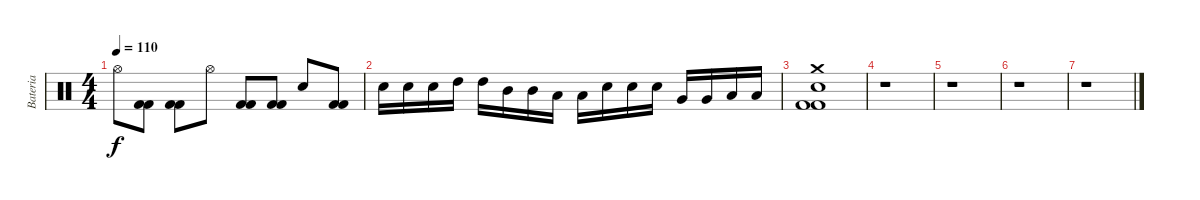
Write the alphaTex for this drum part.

\track ("Bateria" "Bateria") {instrument percussion}
\staff {score}
\articulation defaults
\ts (4 4)
\tempo 110
\clef neutral
\ks c "Hi-Hat (open)".8{dy f}
("Kick (hit) 2" "Kick (hit) 2").8 ("Kick (hit) 2" "Kick (hit) 2").8 "Hi-Hat (open)".8 ("Kick (hit) 2" "Kick (hit) 2").8 ("Kick (hit) 2" "Kick (hit) 2").8 "Electric Snare (hit)".8 ("Kick (hit) 2" "Kick (hit) 2").8 |
"Electric Snare (hit)".16 "Electric Snare (hit)".16 "Electric Snare (hit)".16 "High Tom (hit)".16 "High Tom (hit)".16 "Mid Tom (hit)".16 "Mid Tom (hit)".16 "Low Tom (hit)".16 "Low Tom (hit)".16 "Electric Snare (hit)".16 "Electric Snare (hit)".16 "Electric Snare (hit)".16 "Very Low Tom (hit)".16 "Very Low Tom (hit)".16 "Low Floor Tom (hit)".16 "Low Floor Tom (hit)".16 |
("Kick (hit) 2" "Kick (hit) 2" "Electric Snare (hit)" "Crash medium (hit)").1 |
r.1 |
r.1 |
r.1 |
r.1
